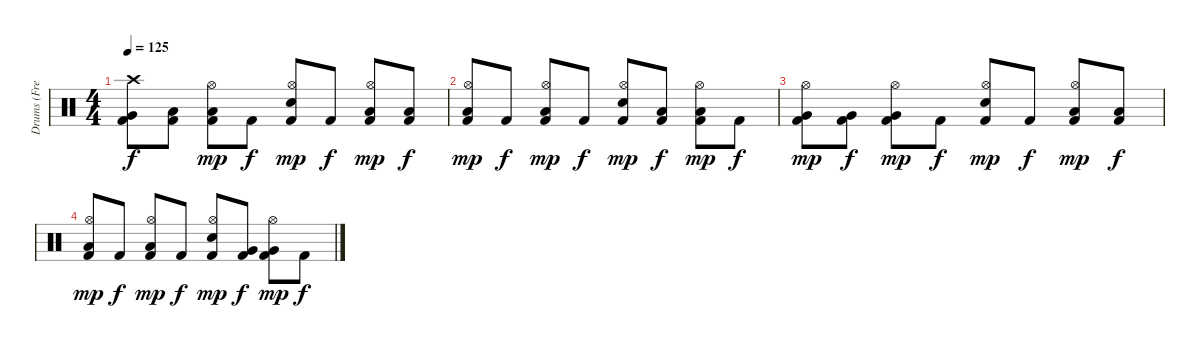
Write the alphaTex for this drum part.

\track ("Drums (Fredrik Andersson)" "Drums (Fre") {instrument percussion}
\staff {score}
\articulation defaults
\ts (4 4)
\tempo 125
\clef neutral
\ks c
("Crash high (hit)" "Very Low Tom (hit)" "Kick (hit) 2").8{dy f volume 5} ("Low Tom (hit)" "Kick (hit) 2").8 ("Hi-Hat (open)" "Low Tom (hit)" "Kick (hit) 2").8{dy mp} "Kick (hit) 2".8{dy f} ("Hi-Hat (open)" "Snare (hit) 2" "Kick (hit) 2").8{dy mp volume 4} "Kick (hit) 2".8{dy f} ("Hi-Hat (open)" "Low Floor Tom (hit)" "Kick (hit) 2").8{dy mp} ("Low Floor Tom (hit)" "Kick (hit) 2").8{dy f} |
("Hi-Hat (open)" "Low Floor Tom (hit)" "Kick (hit) 2").8{dy mp volume 3} "Kick (hit) 2".8{dy f} ("Hi-Hat (open)" "Low Floor Tom (hit)" "Kick (hit) 2").8{dy mp} "Kick (hit) 2".8{dy f} ("Hi-Hat (open)" "Snare (hit) 2" "Kick (hit) 2").8{dy mp volume 2} ("Low Tom (hit)" "Kick (hit) 2").8{dy f} ("Hi-Hat (open)" "Low Tom (hit)" "Kick (hit) 2").8{dy mp} "Kick (hit) 2".8{dy f} |
("Hi-Hat (open)" "Very Low Tom (hit)" "Kick (hit) 2").8{dy mp volume 1} ("Very Low Tom (hit)" "Kick (hit) 2").8{dy f} ("Hi-Hat (open)" "Very Low Tom (hit)" "Kick (hit) 2").8{dy mp} "Kick (hit) 2".8{dy f} ("Hi-Hat (open)" "Snare (hit) 2" "Kick (hit) 2").8{dy mp} "Kick (hit) 2".8{dy f} ("Hi-Hat (open)" "Low Floor Tom (hit)" "Kick (hit) 2").8{dy mp} ("Low Floor Tom (hit)" "Kick (hit) 2").8{dy f} |
("Hi-Hat (open)" "Low Floor Tom (hit)" "Kick (hit) 2").8{dy mp} "Kick (hit) 2".8{dy f} ("Hi-Hat (open)" "Low Floor Tom (hit)" "Kick (hit) 2").8{dy mp} "Kick (hit) 2".8{dy f} ("Hi-Hat (open)" "Snare (hit) 2" "Kick (hit) 2").8{dy mp} ("Very Low Tom (hit)" "Kick (hit) 2").8{dy f} ("Hi-Hat (open)" "Very Low Tom (hit)" "Kick (hit) 2").8{dy mp} "Kick (hit) 2".8{dy f}
